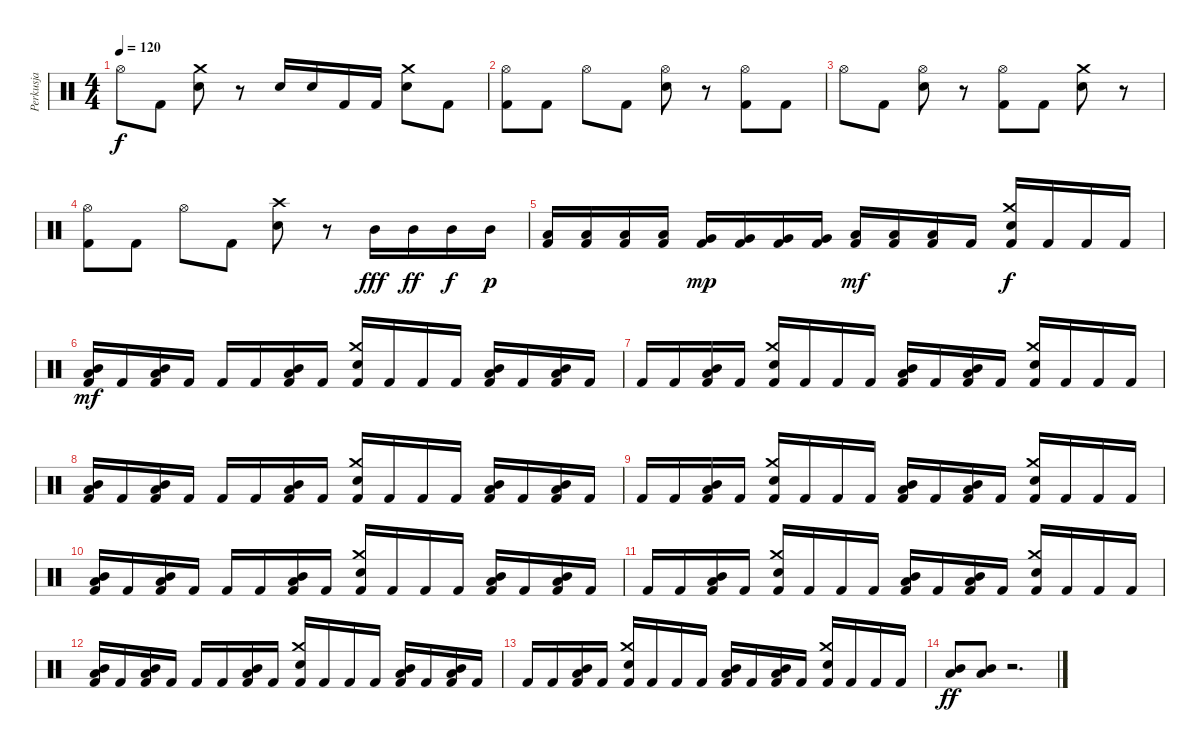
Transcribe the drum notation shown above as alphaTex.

\track ("Perkusja" "Perkusja") {instrument percussion}
\staff {score}
\articulation defaults
\ts (4 4)
\tempo 120
\clef neutral
\ks c "Hi-Hat (open)".8{dy f} "Kick (hit) 2".8
("Crash medium (hit)" "Snare (hit) 2").8 r.8 "Snare (hit) 2".16 "Snare (hit) 2".16 "Kick (hit) 2".16 "Kick (hit) 2".16 ("Crash medium (hit)" "Snare (hit) 2").8 "Kick (hit) 2".8 |
("Hi-Hat (open)" "Kick (hit) 2").8 "Kick (hit) 2".8 "Hi-Hat (open)".8 "Kick (hit) 2".8 ("Hi-Hat (open)" "Snare (hit) 2").8 r.8 ("Hi-Hat (open)" "Kick (hit) 2").8 "Kick (hit) 2".8 |
"Hi-Hat (open)".8 "Kick (hit) 2".8 ("Hi-Hat (open)" "Snare (hit) 2").8 r.8 ("Hi-Hat (open)" "Kick (hit) 2").8 "Kick (hit) 2".8 ("Crash medium (hit)" "Snare (hit) 2").8 r.8 |
("Hi-Hat (open)" "Kick (hit) 2").8 "Kick (hit) 2".8 "Hi-Hat (open)".8 "Kick (hit) 2".8 ("Crash high (hit)" "Snare (hit) 2").8 r.8 "Mid Tom (hit)".16{dy fff} "Mid Tom (hit)".16{dy ff} "Mid Tom (hit)".16{dy f} "Mid Tom (hit)".16{dy p} |
("Low Tom (hit)" "Kick (hit) 2").16 ("Low Tom (hit)" "Kick (hit) 2").16 ("Low Tom (hit)" "Kick (hit) 2").16 ("Low Tom (hit)" "Kick (hit) 2").16 ("Very Low Tom (hit)" "Kick (hit) 2").16{dy mp} ("Very Low Tom (hit)" "Kick (hit) 2").16 ("Very Low Tom (hit)" "Kick (hit) 2").16 ("Very Low Tom (hit)" "Kick (hit) 2").16 ("Low Floor Tom (hit)" "Kick (hit) 2").16{dy mf} ("Low Floor Tom (hit)" "Kick (hit) 2").16 ("Low Floor Tom (hit)" "Kick (hit) 2").16 "Kick (hit) 2".16 ("Crash medium (hit)" "Snare (hit) 2" "Kick (hit) 2").16{dy f} "Kick (hit) 2".16 "Kick (hit) 2".16 "Kick (hit) 2".16 |
("Mid Tom (hit)" "Low Tom (hit)" "Kick (hit) 2").16{dy mf} "Kick (hit) 2".16 ("Mid Tom (hit)" "Low Tom (hit)" "Kick (hit) 2").16 "Kick (hit) 2".16 "Kick (hit) 2".16 "Kick (hit) 2".16 ("Mid Tom (hit)" "Low Tom (hit)" "Kick (hit) 2").16 "Kick (hit) 2".16 ("Crash medium (hit)" "Snare (hit) 2" "Kick (hit) 2").16 "Kick (hit) 2".16 "Kick (hit) 2".16 "Kick (hit) 2".16 ("Mid Tom (hit)" "Low Tom (hit)" "Kick (hit) 2").16 "Kick (hit) 2".16 ("Mid Tom (hit)" "Low Tom (hit)" "Kick (hit) 2").16 "Kick (hit) 2".16 |
"Kick (hit) 2".16 "Kick (hit) 2".16 ("Mid Tom (hit)" "Low Tom (hit)" "Kick (hit) 2").16 "Kick (hit) 2".16 ("Crash medium (hit)" "Snare (hit) 2" "Kick (hit) 2").16 "Kick (hit) 2".16 "Kick (hit) 2".16 "Kick (hit) 2".16 ("Mid Tom (hit)" "Low Tom (hit)" "Kick (hit) 2").16 "Kick (hit) 2".16 ("Mid Tom (hit)" "Low Tom (hit)" "Kick (hit) 2").16 "Kick (hit) 2".16 ("Crash medium (hit)" "Snare (hit) 2" "Kick (hit) 2").16 "Kick (hit) 2".16 "Kick (hit) 2".16 "Kick (hit) 2".16 |
("Mid Tom (hit)" "Low Tom (hit)" "Kick (hit) 2").16 "Kick (hit) 2".16 ("Mid Tom (hit)" "Low Tom (hit)" "Kick (hit) 2").16 "Kick (hit) 2".16 "Kick (hit) 2".16 "Kick (hit) 2".16 ("Mid Tom (hit)" "Low Tom (hit)" "Kick (hit) 2").16 "Kick (hit) 2".16 ("Crash medium (hit)" "Snare (hit) 2" "Kick (hit) 2").16 "Kick (hit) 2".16 "Kick (hit) 2".16 "Kick (hit) 2".16 ("Mid Tom (hit)" "Low Tom (hit)" "Kick (hit) 2").16 "Kick (hit) 2".16 ("Mid Tom (hit)" "Low Tom (hit)" "Kick (hit) 2").16 "Kick (hit) 2".16 |
"Kick (hit) 2".16 "Kick (hit) 2".16 ("Mid Tom (hit)" "Low Tom (hit)" "Kick (hit) 2").16 "Kick (hit) 2".16 ("Crash medium (hit)" "Snare (hit) 2" "Kick (hit) 2").16 "Kick (hit) 2".16 "Kick (hit) 2".16 "Kick (hit) 2".16 ("Mid Tom (hit)" "Low Tom (hit)" "Kick (hit) 2").16 "Kick (hit) 2".16 ("Mid Tom (hit)" "Low Tom (hit)" "Kick (hit) 2").16 "Kick (hit) 2".16 ("Crash medium (hit)" "Snare (hit) 2" "Kick (hit) 2").16 "Kick (hit) 2".16 "Kick (hit) 2".16 "Kick (hit) 2".16 |
("Mid Tom (hit)" "Low Tom (hit)" "Kick (hit) 2").16 "Kick (hit) 2".16 ("Mid Tom (hit)" "Low Tom (hit)" "Kick (hit) 2").16 "Kick (hit) 2".16 "Kick (hit) 2".16 "Kick (hit) 2".16 ("Mid Tom (hit)" "Low Tom (hit)" "Kick (hit) 2").16 "Kick (hit) 2".16 ("Crash medium (hit)" "Snare (hit) 2" "Kick (hit) 2").16 "Kick (hit) 2".16 "Kick (hit) 2".16 "Kick (hit) 2".16 ("Mid Tom (hit)" "Low Tom (hit)" "Kick (hit) 2").16 "Kick (hit) 2".16 ("Mid Tom (hit)" "Low Tom (hit)" "Kick (hit) 2").16 "Kick (hit) 2".16 |
"Kick (hit) 2".16 "Kick (hit) 2".16 ("Mid Tom (hit)" "Low Tom (hit)" "Kick (hit) 2").16 "Kick (hit) 2".16 ("Crash medium (hit)" "Snare (hit) 2" "Kick (hit) 2").16 "Kick (hit) 2".16 "Kick (hit) 2".16 "Kick (hit) 2".16 ("Mid Tom (hit)" "Low Tom (hit)" "Kick (hit) 2").16 "Kick (hit) 2".16 ("Mid Tom (hit)" "Low Tom (hit)" "Kick (hit) 2").16 "Kick (hit) 2".16 ("Crash medium (hit)" "Snare (hit) 2" "Kick (hit) 2").16 "Kick (hit) 2".16 "Kick (hit) 2".16 "Kick (hit) 2".16 |
("Mid Tom (hit)" "Low Tom (hit)" "Kick (hit) 2").16 "Kick (hit) 2".16 ("Mid Tom (hit)" "Low Tom (hit)" "Kick (hit) 2").16 "Kick (hit) 2".16 "Kick (hit) 2".16 "Kick (hit) 2".16 ("Mid Tom (hit)" "Low Tom (hit)" "Kick (hit) 2").16 "Kick (hit) 2".16 ("Crash medium (hit)" "Snare (hit) 2" "Kick (hit) 2").16 "Kick (hit) 2".16 "Kick (hit) 2".16 "Kick (hit) 2".16 ("Mid Tom (hit)" "Low Tom (hit)" "Kick (hit) 2").16 "Kick (hit) 2".16 ("Mid Tom (hit)" "Low Tom (hit)" "Kick (hit) 2").16 "Kick (hit) 2".16 |
"Kick (hit) 2".16 "Kick (hit) 2".16 ("Mid Tom (hit)" "Low Tom (hit)" "Kick (hit) 2").16 "Kick (hit) 2".16 ("Crash medium (hit)" "Snare (hit) 2" "Kick (hit) 2").16 "Kick (hit) 2".16 "Kick (hit) 2".16 "Kick (hit) 2".16 ("Mid Tom (hit)" "Low Tom (hit)" "Kick (hit) 2").16 "Kick (hit) 2".16 ("Mid Tom (hit)" "Low Tom (hit)" "Kick (hit) 2").16 "Kick (hit) 2".16 ("Crash medium (hit)" "Snare (hit) 2" "Kick (hit) 2").16 "Kick (hit) 2".16 "Kick (hit) 2".16 "Kick (hit) 2".16 |
("Mid Tom (hit)" "Low Tom (hit)").8{dy ff} ("Mid Tom (hit)" "Low Tom (hit)").8 r.2{d}
